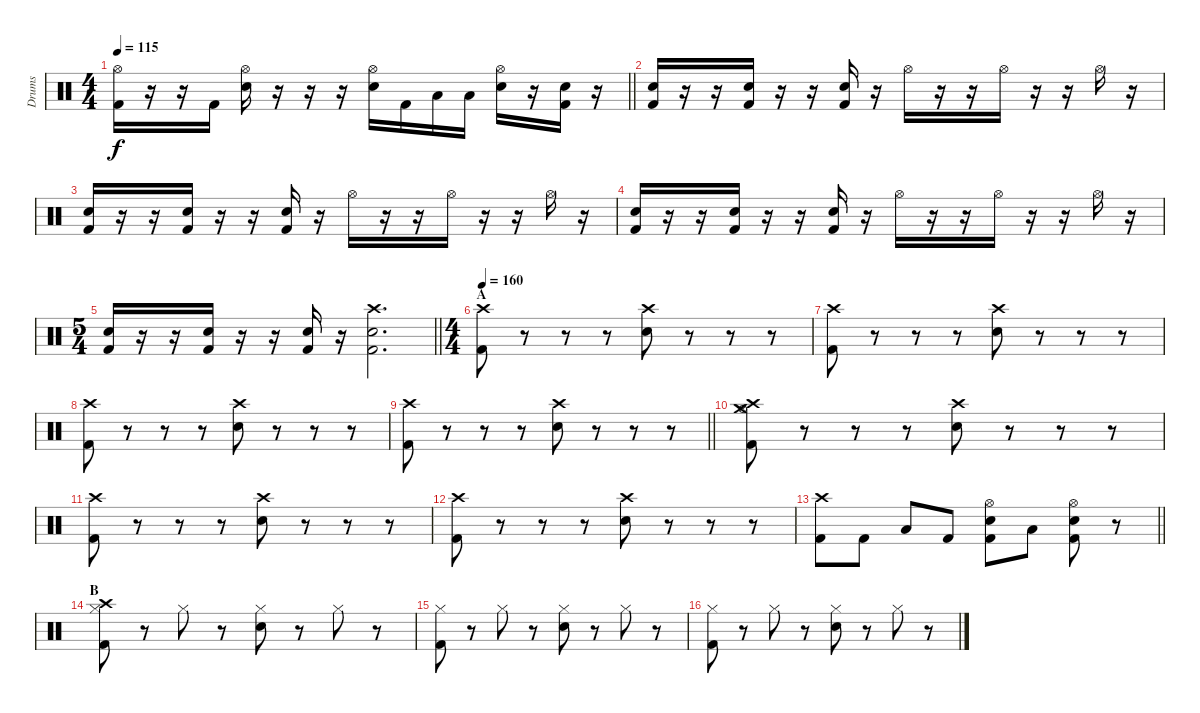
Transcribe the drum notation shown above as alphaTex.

\track ("Drums" "Drums") {instrument percussion}
\staff {score}
\articulation defaults
\ts (4 4)
\tempo 115
\clef neutral
\barLineRight lightlight
\ks c
("Hi-Hat (open)" "Kick (hit) 2").16{dy f} r.16 r.16 "Kick (hit) 2".16 ("Hi-Hat (open)" "Snare (hit) 2").16 r.16 r.16 r.16 ("Hi-Hat (open)" "Snare (hit) 2").16 "Kick (hit) 2".16 "Low Tom (hit)".16 "Low Tom (hit)".16 ("Hi-Hat (open)" "Snare (hit) 2").16 r.16 ("Snare (hit) 2" "Kick (hit) 2").16 r.16 |
("Snare (hit) 2" "Kick (hit) 2").16 r.16 r.16 ("Snare (hit) 2" "Kick (hit) 2").16 r.16 r.16 ("Snare (hit) 2" "Kick (hit) 2").16 r.16 "Hi-Hat (open)".16 r.16 r.16 "Hi-Hat (open)".16 r.16 r.16 "Hi-Hat (open)".16 r.16 |
("Snare (hit) 2" "Kick (hit) 2").16 r.16 r.16 ("Snare (hit) 2" "Kick (hit) 2").16 r.16 r.16 ("Snare (hit) 2" "Kick (hit) 2").16 r.16 "Hi-Hat (open)".16 r.16 r.16 "Hi-Hat (open)".16 r.16 r.16 "Hi-Hat (open)".16 r.16 |
("Snare (hit) 2" "Kick (hit) 2").16 r.16 r.16 ("Snare (hit) 2" "Kick (hit) 2").16 r.16 r.16 ("Snare (hit) 2" "Kick (hit) 2").16 r.16 "Hi-Hat (open)".16 r.16 r.16 "Hi-Hat (open)".16 r.16 r.16 "Hi-Hat (open)".16 r.16 |
\ts (5 4)
\barLineRight lightlight
("Snare (hit) 2" "Kick (hit) 2").16 r.16 r.16 ("Snare (hit) 2" "Kick (hit) 2").16 r.16 r.16 ("Snare (hit) 2" "Kick (hit) 2").16 r.16 ("Crash high (hit)" "Snare (hit) 2" "Kick (hit) 2").2{d} |
\ts (4 4)
\section ("" "A")
\tempo 160
("Crash high (hit)" "Kick (hit) 2").8 r.8 r.8 r.8 ("Crash high (hit)" "Snare (hit) 2").8 r.8 r.8 r.8 |
("Crash high (hit)" "Kick (hit) 2").8 r.8 r.8 r.8 ("Crash high (hit)" "Snare (hit) 2").8 r.8 r.8 r.8 |
("Crash high (hit)" "Kick (hit) 2").8 r.8 r.8 r.8 ("Crash high (hit)" "Snare (hit) 2").8 r.8 r.8 r.8 |
\barLineRight lightlight
("Crash high (hit)" "Kick (hit) 2").8 r.8 r.8 r.8 ("Crash high (hit)" "Snare (hit) 2").8 r.8 r.8 r.8 |
("Crash high (hit)" "Crash medium (hit)" "Hi-Hat (open)" "Kick (hit) 2").8 r.8 r.8 r.8 ("Crash high (hit)" "Snare (hit) 2").8 r.8 r.8 r.8 |
("Crash high (hit)" "Kick (hit) 2").8 r.8 r.8 r.8 ("Crash high (hit)" "Snare (hit) 2").8 r.8 r.8 r.8 |
("Crash high (hit)" "Kick (hit) 2").8 r.8 r.8 r.8 ("Crash high (hit)" "Snare (hit) 2").8 r.8 r.8 r.8 |
\barLineRight lightlight
("Crash high (hit)" "Kick (hit) 2").8 "Kick (hit) 2".8 "Low Tom (hit)".8 "Kick (hit) 2".8 ("Hi-Hat (open)" "Snare (hit) 2" "Kick (hit) 2").8 "Low Tom (hit)".8 ("Hi-Hat (open)" "Snare (hit) 2" "Kick (hit) 2").8 r.8 |
\section ("" "B")
("Crash high (hit)" "Hi-Hat (closed)" "Kick (hit) 2").8 r.8 "Hi-Hat (closed)".8 r.8 ("Hi-Hat (closed)" "Snare (hit) 2").8 r.8 "Hi-Hat (closed)".8 r.8 |
("Hi-Hat (closed)" "Kick (hit) 2").8 r.8 "Hi-Hat (closed)".8 r.8 ("Hi-Hat (closed)" "Snare (hit) 2").8 r.8 "Hi-Hat (closed)".8 r.8 |
("Hi-Hat (closed)" "Kick (hit) 2").8 r.8 "Hi-Hat (closed)".8 r.8 ("Hi-Hat (closed)" "Snare (hit) 2").8 r.8 "Hi-Hat (closed)".8 r.8
